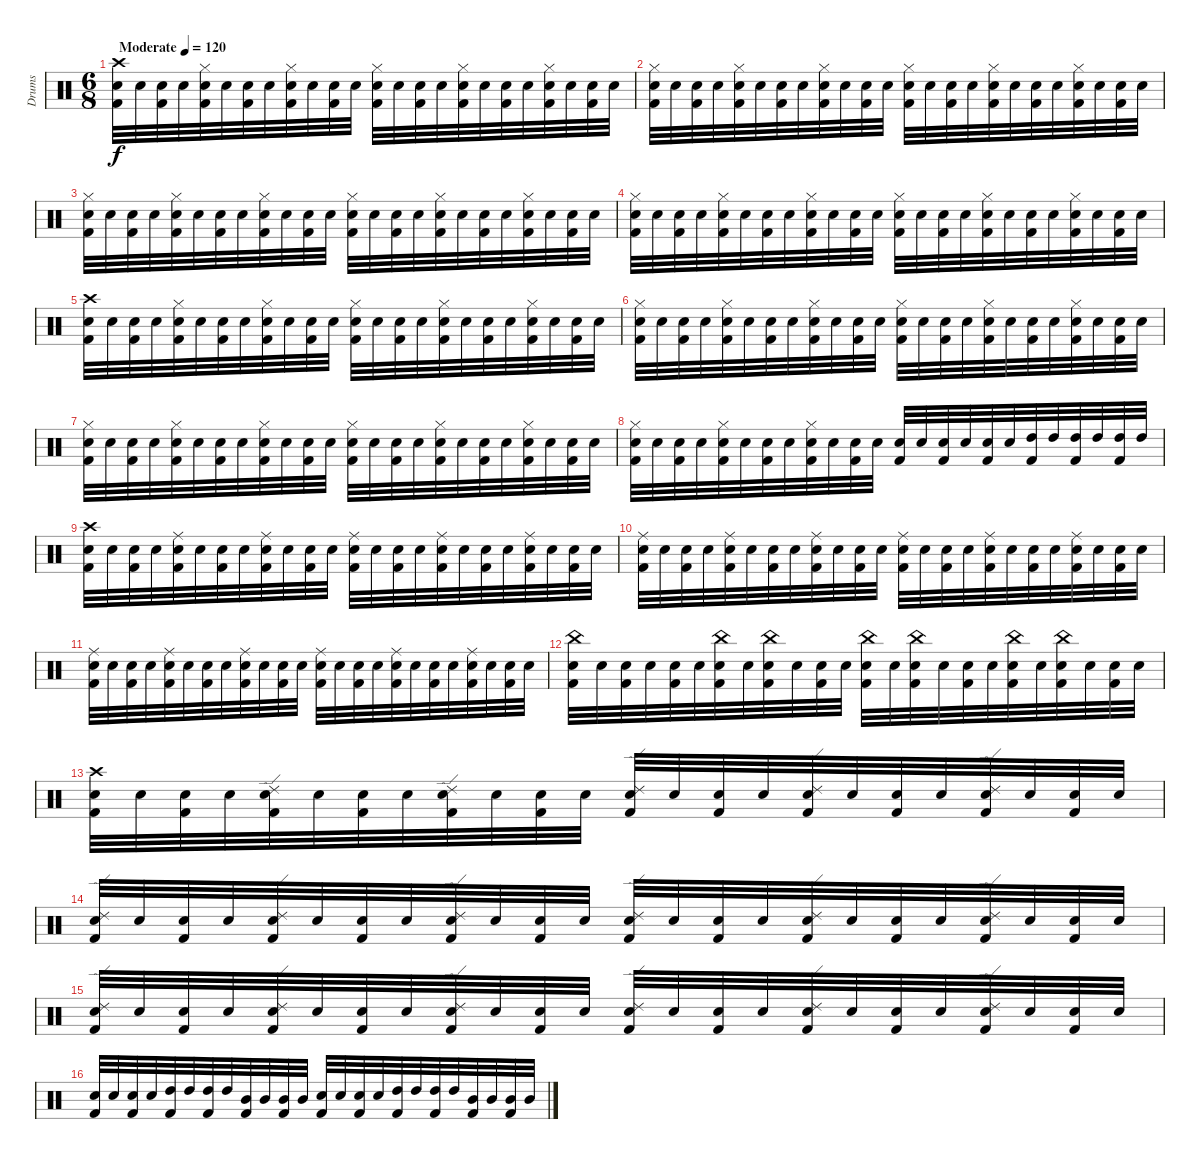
\track ("Drums" "Drums") {instrument percussion}
\staff {score}
\articulation defaults
\ts (6 8)
\tempo (120 "Moderate")
\clef neutral
\ks c
("Crash high (hit)" "Snare (hit) 2" "Kick (hit) 2").32{dy f} "Snare (hit) 2".32 ("Snare (hit) 2" "Kick (hit) 2").32 "Snare (hit) 2".32 ("Hi-Hat (closed)" "Snare (hit) 2" "Kick (hit) 2").32 "Snare (hit) 2".32 ("Snare (hit) 2" "Kick (hit) 2").32 "Snare (hit) 2".32 ("Hi-Hat (closed)" "Snare (hit) 2" "Kick (hit) 2").32 "Snare (hit) 2".32 ("Snare (hit) 2" "Kick (hit) 2").32 "Snare (hit) 2".32 ("Hi-Hat (closed)" "Snare (hit) 2" "Kick (hit) 2").32 "Snare (hit) 2".32 ("Snare (hit) 2" "Kick (hit) 2").32 "Snare (hit) 2".32 ("Hi-Hat (closed)" "Snare (hit) 2" "Kick (hit) 2").32 "Snare (hit) 2".32 ("Snare (hit) 2" "Kick (hit) 2").32 "Snare (hit) 2".32 ("Hi-Hat (closed)" "Snare (hit) 2" "Kick (hit) 2").32 "Snare (hit) 2".32 ("Snare (hit) 2" "Kick (hit) 2").32 "Snare (hit) 2".32 |
("Hi-Hat (closed)" "Snare (hit) 2" "Kick (hit) 2").32 "Snare (hit) 2".32 ("Snare (hit) 2" "Kick (hit) 2").32 "Snare (hit) 2".32 ("Hi-Hat (closed)" "Snare (hit) 2" "Kick (hit) 2").32 "Snare (hit) 2".32 ("Snare (hit) 2" "Kick (hit) 2").32 "Snare (hit) 2".32 ("Hi-Hat (closed)" "Snare (hit) 2" "Kick (hit) 2").32 "Snare (hit) 2".32 ("Snare (hit) 2" "Kick (hit) 2").32 "Snare (hit) 2".32 ("Hi-Hat (closed)" "Snare (hit) 2" "Kick (hit) 2").32 "Snare (hit) 2".32 ("Snare (hit) 2" "Kick (hit) 2").32 "Snare (hit) 2".32 ("Hi-Hat (closed)" "Snare (hit) 2" "Kick (hit) 2").32 "Snare (hit) 2".32 ("Snare (hit) 2" "Kick (hit) 2").32 "Snare (hit) 2".32 ("Hi-Hat (closed)" "Snare (hit) 2" "Kick (hit) 2").32 "Snare (hit) 2".32 ("Snare (hit) 2" "Kick (hit) 2").32 "Snare (hit) 2".32 |
("Hi-Hat (closed)" "Snare (hit) 2" "Kick (hit) 2").32 "Snare (hit) 2".32 ("Snare (hit) 2" "Kick (hit) 2").32 "Snare (hit) 2".32 ("Hi-Hat (closed)" "Snare (hit) 2" "Kick (hit) 2").32 "Snare (hit) 2".32 ("Snare (hit) 2" "Kick (hit) 2").32 "Snare (hit) 2".32 ("Hi-Hat (closed)" "Snare (hit) 2" "Kick (hit) 2").32 "Snare (hit) 2".32 ("Snare (hit) 2" "Kick (hit) 2").32 "Snare (hit) 2".32 ("Hi-Hat (closed)" "Snare (hit) 2" "Kick (hit) 2").32 "Snare (hit) 2".32 ("Snare (hit) 2" "Kick (hit) 2").32 "Snare (hit) 2".32 ("Hi-Hat (closed)" "Snare (hit) 2" "Kick (hit) 2").32 "Snare (hit) 2".32 ("Snare (hit) 2" "Kick (hit) 2").32 "Snare (hit) 2".32 ("Hi-Hat (closed)" "Snare (hit) 2" "Kick (hit) 2").32 "Snare (hit) 2".32 ("Snare (hit) 2" "Kick (hit) 2").32 "Snare (hit) 2".32 |
("Hi-Hat (closed)" "Snare (hit) 2" "Kick (hit) 2").32 "Snare (hit) 2".32 ("Snare (hit) 2" "Kick (hit) 2").32 "Snare (hit) 2".32 ("Hi-Hat (closed)" "Snare (hit) 2" "Kick (hit) 2").32 "Snare (hit) 2".32 ("Snare (hit) 2" "Kick (hit) 2").32 "Snare (hit) 2".32 ("Hi-Hat (closed)" "Snare (hit) 2" "Kick (hit) 2").32 "Snare (hit) 2".32 ("Snare (hit) 2" "Kick (hit) 2").32 "Snare (hit) 2".32 ("Hi-Hat (closed)" "Snare (hit) 2" "Kick (hit) 2").32 "Snare (hit) 2".32 ("Snare (hit) 2" "Kick (hit) 2").32 "Snare (hit) 2".32 ("Hi-Hat (closed)" "Snare (hit) 2" "Kick (hit) 2").32 "Snare (hit) 2".32 ("Snare (hit) 2" "Kick (hit) 2").32 "Snare (hit) 2".32 ("Hi-Hat (closed)" "Snare (hit) 2" "Kick (hit) 2").32 "Snare (hit) 2".32 ("Snare (hit) 2" "Kick (hit) 2").32 "Snare (hit) 2".32 |
("Crash high (hit)" "Snare (hit) 2" "Kick (hit) 2").32 "Snare (hit) 2".32 ("Snare (hit) 2" "Kick (hit) 2").32 "Snare (hit) 2".32 ("Hi-Hat (closed)" "Snare (hit) 2" "Kick (hit) 2").32 "Snare (hit) 2".32 ("Snare (hit) 2" "Kick (hit) 2").32 "Snare (hit) 2".32 ("Hi-Hat (closed)" "Snare (hit) 2" "Kick (hit) 2").32 "Snare (hit) 2".32 ("Snare (hit) 2" "Kick (hit) 2").32 "Snare (hit) 2".32 ("Hi-Hat (closed)" "Snare (hit) 2" "Kick (hit) 2").32 "Snare (hit) 2".32 ("Snare (hit) 2" "Kick (hit) 2").32 "Snare (hit) 2".32 ("Hi-Hat (closed)" "Snare (hit) 2" "Kick (hit) 2").32 "Snare (hit) 2".32 ("Snare (hit) 2" "Kick (hit) 2").32 "Snare (hit) 2".32 ("Hi-Hat (closed)" "Snare (hit) 2" "Kick (hit) 2").32 "Snare (hit) 2".32 ("Snare (hit) 2" "Kick (hit) 2").32 "Snare (hit) 2".32 |
("Hi-Hat (closed)" "Snare (hit) 2" "Kick (hit) 2").32 "Snare (hit) 2".32 ("Snare (hit) 2" "Kick (hit) 2").32 "Snare (hit) 2".32 ("Hi-Hat (closed)" "Snare (hit) 2" "Kick (hit) 2").32 "Snare (hit) 2".32 ("Snare (hit) 2" "Kick (hit) 2").32 "Snare (hit) 2".32 ("Hi-Hat (closed)" "Snare (hit) 2" "Kick (hit) 2").32 "Snare (hit) 2".32 ("Snare (hit) 2" "Kick (hit) 2").32 "Snare (hit) 2".32 ("Hi-Hat (closed)" "Snare (hit) 2" "Kick (hit) 2").32 "Snare (hit) 2".32 ("Snare (hit) 2" "Kick (hit) 2").32 "Snare (hit) 2".32 ("Hi-Hat (closed)" "Snare (hit) 2" "Kick (hit) 2").32 "Snare (hit) 2".32 ("Snare (hit) 2" "Kick (hit) 2").32 "Snare (hit) 2".32 ("Hi-Hat (closed)" "Snare (hit) 2" "Kick (hit) 2").32 "Snare (hit) 2".32 ("Snare (hit) 2" "Kick (hit) 2").32 "Snare (hit) 2".32 |
("Hi-Hat (closed)" "Snare (hit) 2" "Kick (hit) 2").32 "Snare (hit) 2".32 ("Snare (hit) 2" "Kick (hit) 2").32 "Snare (hit) 2".32 ("Hi-Hat (closed)" "Snare (hit) 2" "Kick (hit) 2").32 "Snare (hit) 2".32 ("Snare (hit) 2" "Kick (hit) 2").32 "Snare (hit) 2".32 ("Hi-Hat (closed)" "Snare (hit) 2" "Kick (hit) 2").32 "Snare (hit) 2".32 ("Snare (hit) 2" "Kick (hit) 2").32 "Snare (hit) 2".32 ("Hi-Hat (closed)" "Snare (hit) 2" "Kick (hit) 2").32 "Snare (hit) 2".32 ("Snare (hit) 2" "Kick (hit) 2").32 "Snare (hit) 2".32 ("Hi-Hat (closed)" "Snare (hit) 2" "Kick (hit) 2").32 "Snare (hit) 2".32 ("Snare (hit) 2" "Kick (hit) 2").32 "Snare (hit) 2".32 ("Hi-Hat (closed)" "Snare (hit) 2" "Kick (hit) 2").32 "Snare (hit) 2".32 ("Snare (hit) 2" "Kick (hit) 2").32 "Snare (hit) 2".32 |
("Hi-Hat (closed)" "Snare (hit) 2" "Kick (hit) 2").32 "Snare (hit) 2".32 ("Snare (hit) 2" "Kick (hit) 2").32 "Snare (hit) 2".32 ("Hi-Hat (closed)" "Snare (hit) 2" "Kick (hit) 2").32 "Snare (hit) 2".32 ("Snare (hit) 2" "Kick (hit) 2").32 "Snare (hit) 2".32 ("Hi-Hat (closed)" "Snare (hit) 2" "Kick (hit) 2").32 "Snare (hit) 2".32 ("Snare (hit) 2" "Kick (hit) 2").32 "Snare (hit) 2".32 ("Snare (hit) 2" "Kick (hit) 2").32 "Snare (hit) 2".32 ("Snare (hit) 2" "Kick (hit) 2").32 "Snare (hit) 2".32 ("Snare (hit) 2" "Kick (hit) 2").32 "Snare (hit) 2".32 ("High Tom (hit)" "Kick (hit) 2").32 "High Tom (hit)".32 ("High Tom (hit)" "Kick (hit) 2").32 "High Tom (hit)".32 ("High Tom (hit)" "Kick (hit) 2").32 "High Tom (hit)".32 |
("Crash high (hit)" "Snare (hit) 2" "Kick (hit) 2").32 "Snare (hit) 2".32 ("Snare (hit) 2" "Kick (hit) 2").32 "Snare (hit) 2".32 ("Ride (middle)" "Snare (hit) 2" "Kick (hit) 2").32 "Snare (hit) 2".32 ("Snare (hit) 2" "Kick (hit) 2").32 "Snare (hit) 2".32 ("Ride (middle)" "Snare (hit) 2" "Kick (hit) 2").32 "Snare (hit) 2".32 ("Snare (hit) 2" "Kick (hit) 2").32 "Snare (hit) 2".32 ("Ride (middle)" "Snare (hit) 2" "Kick (hit) 2").32 "Snare (hit) 2".32 ("Snare (hit) 2" "Kick (hit) 2").32 "Snare (hit) 2".32 ("Ride (middle)" "Snare (hit) 2" "Kick (hit) 2").32 "Snare (hit) 2".32 ("Snare (hit) 2" "Kick (hit) 2").32 "Snare (hit) 2".32 ("Ride (middle)" "Snare (hit) 2" "Kick (hit) 2").32 "Snare (hit) 2".32 ("Snare (hit) 2" "Kick (hit) 2").32 "Snare (hit) 2".32 |
("Ride (middle)" "Snare (hit) 2" "Kick (hit) 2").32 "Snare (hit) 2".32 ("Snare (hit) 2" "Kick (hit) 2").32 "Snare (hit) 2".32 ("Ride (middle)" "Snare (hit) 2" "Kick (hit) 2").32 "Snare (hit) 2".32 ("Snare (hit) 2" "Kick (hit) 2").32 "Snare (hit) 2".32 ("Ride (middle)" "Snare (hit) 2" "Kick (hit) 2").32 "Snare (hit) 2".32 ("Snare (hit) 2" "Kick (hit) 2").32 "Snare (hit) 2".32 ("Ride (middle)" "Snare (hit) 2" "Kick (hit) 2").32 "Snare (hit) 2".32 ("Snare (hit) 2" "Kick (hit) 2").32 "Snare (hit) 2".32 ("Ride (middle)" "Snare (hit) 2" "Kick (hit) 2").32 "Snare (hit) 2".32 ("Snare (hit) 2" "Kick (hit) 2").32 "Snare (hit) 2".32 ("Ride (middle)" "Snare (hit) 2" "Kick (hit) 2").32 "Snare (hit) 2".32 ("Snare (hit) 2" "Kick (hit) 2").32 "Snare (hit) 2".32 |
("Ride (middle)" "Snare (hit) 2" "Kick (hit) 2").32 "Snare (hit) 2".32 ("Snare (hit) 2" "Kick (hit) 2").32 "Snare (hit) 2".32 ("Ride (middle)" "Snare (hit) 2" "Kick (hit) 2").32 "Snare (hit) 2".32 ("Snare (hit) 2" "Kick (hit) 2").32 "Snare (hit) 2".32 ("Ride (middle)" "Snare (hit) 2" "Kick (hit) 2").32 "Snare (hit) 2".32 ("Snare (hit) 2" "Kick (hit) 2").32 "Snare (hit) 2".32 ("Ride (middle)" "Snare (hit) 2" "Kick (hit) 2").32 "Snare (hit) 2".32 ("Snare (hit) 2" "Kick (hit) 2").32 "Snare (hit) 2".32 ("Ride (middle)" "Snare (hit) 2" "Kick (hit) 2").32 "Snare (hit) 2".32 ("Snare (hit) 2" "Kick (hit) 2").32 "Snare (hit) 2".32 ("Ride (middle)" "Snare (hit) 2" "Kick (hit) 2").32 "Snare (hit) 2".32 ("Snare (hit) 2" "Kick (hit) 2").32 "Snare (hit) 2".32 |
("China (hit)" "Snare (hit) 2" "Kick (hit) 2").32 "Snare (hit) 2".32 ("Snare (hit) 2" "Kick (hit) 2").32 "Snare (hit) 2".32 ("Snare (hit) 2" "Kick (hit) 2").32 "Snare (hit) 2".32 ("China (hit)" "Snare (hit) 2" "Kick (hit) 2").32 "Snare (hit) 2".32 ("China (hit)" "Snare (hit) 2" "Kick (hit) 2").32 "Snare (hit) 2".32 ("Snare (hit) 2" "Kick (hit) 2").32 "Snare (hit) 2".32 ("China (hit)" "Snare (hit) 2" "Kick (hit) 2").32 "Snare (hit) 2".32 ("China (hit)" "Snare (hit) 2" "Kick (hit) 2").32 "Snare (hit) 2".32 ("Snare (hit) 2" "Kick (hit) 2").32 "Snare (hit) 2".32 ("China (hit)" "Snare (hit) 2" "Kick (hit) 2").32 "Snare (hit) 2".32 ("China (hit)" "Snare (hit) 2" "Kick (hit) 2").32 "Snare (hit) 2".32 ("Snare (hit) 2" "Kick (hit) 2").32 "Snare (hit) 2".32 |
("Crash high (hit)" "Snare (hit) 2" "Kick (hit) 2").32 "Snare (hit) 2".32 ("Snare (hit) 2" "Kick (hit) 2").32 "Snare (hit) 2".32 ("Ride (edge) 2" "Snare (hit) 2" "Kick (hit) 2").32 "Snare (hit) 2".32 ("Snare (hit) 2" "Kick (hit) 2").32 "Snare (hit) 2".32 ("Ride (edge) 2" "Snare (hit) 2" "Kick (hit) 2").32 "Snare (hit) 2".32 ("Snare (hit) 2" "Kick (hit) 2").32 "Snare (hit) 2".32 ("Ride (edge) 2" "Snare (hit) 2" "Kick (hit) 2").32 "Snare (hit) 2".32 ("Snare (hit) 2" "Kick (hit) 2").32 "Snare (hit) 2".32 ("Ride (edge) 2" "Snare (hit) 2" "Kick (hit) 2").32 "Snare (hit) 2".32 ("Snare (hit) 2" "Kick (hit) 2").32 "Snare (hit) 2".32 ("Ride (edge) 2" "Snare (hit) 2" "Kick (hit) 2").32 "Snare (hit) 2".32 ("Snare (hit) 2" "Kick (hit) 2").32 "Snare (hit) 2".32 |
("Ride (edge) 2" "Snare (hit) 2" "Kick (hit) 2").32 "Snare (hit) 2".32 ("Snare (hit) 2" "Kick (hit) 2").32 "Snare (hit) 2".32 ("Ride (edge) 2" "Snare (hit) 2" "Kick (hit) 2").32 "Snare (hit) 2".32 ("Snare (hit) 2" "Kick (hit) 2").32 "Snare (hit) 2".32 ("Ride (edge) 2" "Snare (hit) 2" "Kick (hit) 2").32 "Snare (hit) 2".32 ("Snare (hit) 2" "Kick (hit) 2").32 "Snare (hit) 2".32 ("Ride (edge) 2" "Snare (hit) 2" "Kick (hit) 2").32 "Snare (hit) 2".32 ("Snare (hit) 2" "Kick (hit) 2").32 "Snare (hit) 2".32 ("Ride (edge) 2" "Snare (hit) 2" "Kick (hit) 2").32 "Snare (hit) 2".32 ("Snare (hit) 2" "Kick (hit) 2").32 "Snare (hit) 2".32 ("Ride (edge) 2" "Snare (hit) 2" "Kick (hit) 2").32 "Snare (hit) 2".32 ("Snare (hit) 2" "Kick (hit) 2").32 "Snare (hit) 2".32 |
("Ride (edge) 2" "Snare (hit) 2" "Kick (hit) 2").32 "Snare (hit) 2".32 ("Snare (hit) 2" "Kick (hit) 2").32 "Snare (hit) 2".32 ("Ride (edge) 2" "Snare (hit) 2" "Kick (hit) 2").32 "Snare (hit) 2".32 ("Snare (hit) 2" "Kick (hit) 2").32 "Snare (hit) 2".32 ("Ride (edge) 2" "Snare (hit) 2" "Kick (hit) 2").32 "Snare (hit) 2".32 ("Snare (hit) 2" "Kick (hit) 2").32 "Snare (hit) 2".32 ("Ride (edge) 2" "Snare (hit) 2" "Kick (hit) 2").32 "Snare (hit) 2".32 ("Snare (hit) 2" "Kick (hit) 2").32 "Snare (hit) 2".32 ("Ride (edge) 2" "Snare (hit) 2" "Kick (hit) 2").32 "Snare (hit) 2".32 ("Snare (hit) 2" "Kick (hit) 2").32 "Snare (hit) 2".32 ("Ride (edge) 2" "Snare (hit) 2" "Kick (hit) 2").32 "Snare (hit) 2".32 ("Snare (hit) 2" "Kick (hit) 2").32 "Snare (hit) 2".32 |
("Snare (hit) 2" "Kick (hit) 2").32 "Snare (hit) 2".32 ("Snare (hit) 2" "Kick (hit) 2").32 "Snare (hit) 2".32 ("High Tom (hit)" "Kick (hit) 2").32 "High Tom (hit)".32 ("High Tom (hit)" "Kick (hit) 2").32 "High Tom (hit)".32 ("Mid Tom (hit)" "Kick (hit) 2").32 "Mid Tom (hit)".32 ("Mid Tom (hit)" "Kick (hit) 2").32 "Mid Tom (hit)".32 ("Snare (hit) 2" "Kick (hit) 2").32 "Snare (hit) 2".32 ("Snare (hit) 2" "Kick (hit) 2").32 "Snare (hit) 2".32 ("High Tom (hit)" "Kick (hit) 2").32 "High Tom (hit)".32 ("High Tom (hit)" "Kick (hit) 2").32 "High Tom (hit)".32 ("Mid Tom (hit)" "Kick (hit) 2").32 "Mid Tom (hit)".32 ("Mid Tom (hit)" "Kick (hit) 2").32 "Mid Tom (hit)".32
